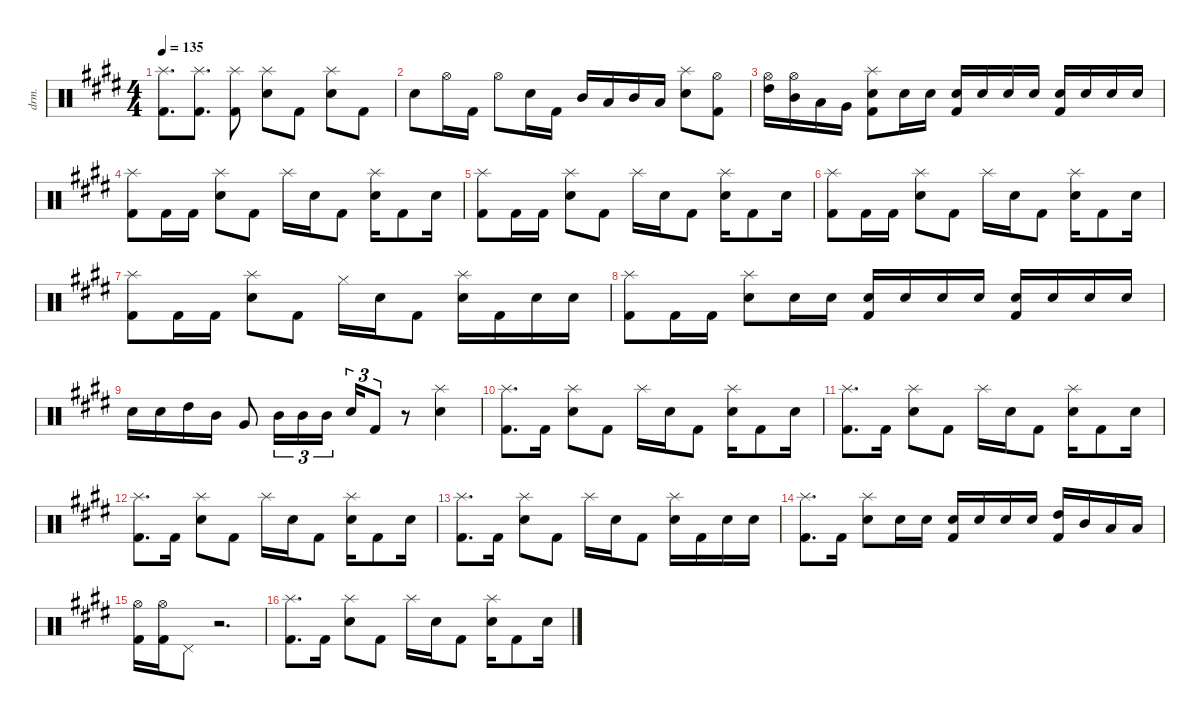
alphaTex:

\defaultSystemsLayout 4
\hideDynamics
\bracketExtendMode nobrackets
\track ("Drumkit" "drm.") {instrument percussion}
\staff {score}
\articulation defaults
\ts (4 4)
\tempo 135
\clef neutral
\ks e
("Splash (hit)"{acc forcenatural} "Kick (hit) 2"{acc forcenatural}).8{d dy mf} ("Kick (hit) 2"{acc forcenatural} "Splash (hit)"{acc forcenatural}).8{d} ("Splash (hit)"{acc forcenatural} "Kick (hit) 2"{acc forcenatural}).8 ("Snare (hit) 2"{acc forcenatural} "Splash (hit)"{acc forcenatural}).8 "Kick (hit) 2"{acc forcenatural}.8 ("Snare (hit) 2"{acc forcenatural} "Splash (hit)"{acc forcenatural}).8 "Kick (hit) 2"{acc forcenatural}.8 |
"Snare (hit) 2"{acc forcenatural}.8 "Hi-Hat (open)"{acc forcenatural}.16 "Kick (hit) 2"{acc forcenatural}.16 "Hi-Hat (open)"{acc forcenatural}.8 "Snare (hit) 2"{acc forcenatural}.16 "Kick (hit) 2"{acc forcenatural}.16 "Mid Tom (hit)"{acc forcenatural}.16 "Low Tom (hit)"{acc forcenatural}.16 "Mid Tom (hit)"{acc forcenatural}.16 "Low Tom (hit)"{acc forcenatural}.16 ("Snare (hit) 2"{acc forcenatural} "Splash (hit)"{acc forcenatural}).8 ("Hi-Hat (open)"{acc forcenatural} "Kick (hit) 2"{acc forcenatural}).8 |
("Hi-Hat (open)"{acc forcenatural} "High Tom (hit)"{acc forcenatural}).16 ("Hi-Hat (open)"{acc forcenatural} "Mid Tom (hit)"{acc forcenatural}).16 "Low Tom (hit)"{acc forcenatural}.16 "Very Low Tom (hit)"{acc forcenatural}.16 ("Kick (hit) 2"{acc forcenatural} "Splash (hit)"{acc forcenatural} "Snare (hit) 2"{acc forcenatural}).8 "Snare (hit) 2"{acc forcenatural}.16 "Snare (hit) 2"{acc forcenatural}.16 ("Snare (hit) 2"{acc forcenatural} "Kick (hit) 2"{acc forcenatural}).16 "Snare (hit) 2"{acc forcenatural}.16 "Snare (hit) 2"{acc forcenatural}.16 "Snare (hit) 2"{acc forcenatural}.16 ("Snare (hit) 2"{acc forcenatural} "Kick (hit) 2"{acc forcenatural}).16 "Snare (hit) 2"{acc forcenatural}.16 "Snare (hit) 2"{acc forcenatural}.16 "Snare (hit) 2"{acc forcenatural}.16 |
("Splash (hit)"{acc forcenatural} "Kick (hit) 2"{acc forcenatural}).8 "Kick (hit) 2"{acc forcenatural}.16 "Kick (hit) 2"{acc forcenatural}.16 ("Splash (hit)"{acc forcenatural} "Snare (hit) 2"{acc forcenatural}).8 "Kick (hit) 2"{acc forcenatural}.8 "Splash (hit)"{acc forcenatural}.16 "Snare (hit) 2"{acc forcenatural}.16 "Kick (hit) 2"{acc forcenatural}.8 ("Snare (hit) 2"{acc forcenatural} "Splash (hit)"{acc forcenatural}).16 "Kick (hit) 2"{acc forcenatural}.8 "Snare (hit) 2"{acc forcenatural}.16 |
("Splash (hit)"{acc forcenatural} "Kick (hit) 2"{acc forcenatural}).8 "Kick (hit) 2"{acc forcenatural}.16 "Kick (hit) 2"{acc forcenatural}.16 ("Splash (hit)"{acc forcenatural} "Snare (hit) 2"{acc forcenatural}).8 "Kick (hit) 2"{acc forcenatural}.8 "Splash (hit)"{acc forcenatural}.16 "Snare (hit) 2"{acc forcenatural}.16 "Kick (hit) 2"{acc forcenatural}.8 ("Snare (hit) 2"{acc forcenatural} "Splash (hit)"{acc forcenatural}).16 "Kick (hit) 2"{acc forcenatural}.8 "Snare (hit) 2"{acc forcenatural}.16 |
("Splash (hit)"{acc forcenatural} "Kick (hit) 2"{acc forcenatural}).8 "Kick (hit) 2"{acc forcenatural}.16 "Kick (hit) 2"{acc forcenatural}.16 ("Splash (hit)"{acc forcenatural} "Snare (hit) 2"{acc forcenatural}).8 "Kick (hit) 2"{acc forcenatural}.8 "Splash (hit)"{acc forcenatural}.16 "Snare (hit) 2"{acc forcenatural}.16 "Kick (hit) 2"{acc forcenatural}.8 ("Snare (hit) 2"{acc forcenatural} "Splash (hit)"{acc forcenatural}).16 "Kick (hit) 2"{acc forcenatural}.8 "Snare (hit) 2"{acc forcenatural}.16 |
("Kick (hit) 2"{acc forcenatural} "Splash (hit)"{acc forcenatural}).8 "Kick (hit) 2"{acc forcenatural}.16 "Kick (hit) 2"{acc forcenatural}.16 ("Splash (hit)"{acc forcenatural} "Snare (hit) 2"{acc forcenatural}).8 "Kick (hit) 2"{acc forcenatural}.8 "Hi-Hat (closed)"{acc forcenatural}.16 "Snare (hit) 2"{acc forcenatural}.16 "Kick (hit) 2"{acc forcenatural}.8 ("Splash (hit)"{acc forcenatural} "Snare (hit) 2"{acc forcenatural}).16 "Kick (hit) 2"{acc forcenatural}.16 "Snare (hit) 2"{acc forcenatural}.16 "Snare (hit) 2"{acc forcenatural}.16 |
("Kick (hit) 2"{acc forcenatural} "Splash (hit)"{acc forcenatural}).8 "Kick (hit) 2"{acc forcenatural}.16 "Kick (hit) 2"{acc forcenatural}.16 ("Splash (hit)"{acc forcenatural} "Snare (hit) 2"{acc forcenatural}).8 "Snare (hit) 2"{acc forcenatural}.16 "Snare (hit) 2"{acc forcenatural}.16 ("Snare (hit) 2"{acc forcenatural} "Kick (hit) 2"{acc forcenatural}).16 "Snare (hit) 2"{acc forcenatural}.16 "Snare (hit) 2"{acc forcenatural}.16 "Snare (hit) 2"{acc forcenatural}.16 ("Snare (hit) 2"{acc forcenatural} "Kick (hit) 2"{acc forcenatural}).16 "Snare (hit) 2"{acc forcenatural}.16 "Snare (hit) 2"{acc forcenatural}.16 "Snare (hit) 2"{acc forcenatural}.16 |
"Snare (hit) 2"{acc forcenatural}.16 "Snare (hit) 2"{acc forcenatural}.16 "High Tom (hit)"{acc forcenatural}.16 "Mid Tom (hit)"{acc forcenatural}.16 "Very Low Tom (hit)"{acc forcenatural}.8 "Mid Tom (hit)"{acc forcenatural}.16{tu (3 2)} "Mid Tom (hit)"{acc forcenatural}.16{tu (3 2)} "Mid Tom (hit)"{acc forcenatural}.16{tu (3 2)} "Snare (hit) 2"{acc forcenatural}.16{tu (3 2)} "Kick (hit) 2"{acc forcenatural}.8{tu (3 2)} r.8 ("Splash (hit)"{acc forcenatural} "Snare (hit) 2"{acc forcenatural}).4 |
("Splash (hit)"{acc forcenatural} "Kick (hit) 2"{acc forcenatural}).8{d} "Kick (hit) 2"{acc forcenatural}.16 ("Snare (hit) 2"{acc forcenatural} "Splash (hit)"{acc forcenatural}).8 "Kick (hit) 2"{acc forcenatural}.8 "Splash (hit)"{acc forcenatural}.16 "Snare (hit) 2"{acc forcenatural}.16 "Kick (hit) 2"{acc forcenatural}.8 ("Splash (hit)"{acc forcenatural} "Snare (hit) 2"{acc forcenatural}).16 "Kick (hit) 2"{acc forcenatural}.8 "Snare (hit) 2"{acc forcenatural}.16 |
("Splash (hit)"{acc forcenatural} "Kick (hit) 2"{acc forcenatural}).8{d} "Kick (hit) 2"{acc forcenatural}.16 ("Snare (hit) 2"{acc forcenatural} "Splash (hit)"{acc forcenatural}).8 "Kick (hit) 2"{acc forcenatural}.8 "Splash (hit)"{acc forcenatural}.16 "Snare (hit) 2"{acc forcenatural}.16 "Kick (hit) 2"{acc forcenatural}.8 ("Splash (hit)"{acc forcenatural} "Snare (hit) 2"{acc forcenatural}).16 "Kick (hit) 2"{acc forcenatural}.8 "Snare (hit) 2"{acc forcenatural}.16 |
("Splash (hit)"{acc forcenatural} "Kick (hit) 2"{acc forcenatural}).8{d} "Kick (hit) 2"{acc forcenatural}.16 ("Snare (hit) 2"{acc forcenatural} "Splash (hit)"{acc forcenatural}).8 "Kick (hit) 2"{acc forcenatural}.8 "Splash (hit)"{acc forcenatural}.16 "Snare (hit) 2"{acc forcenatural}.16 "Kick (hit) 2"{acc forcenatural}.8 ("Splash (hit)"{acc forcenatural} "Snare (hit) 2"{acc forcenatural}).16 "Kick (hit) 2"{acc forcenatural}.8 "Snare (hit) 2"{acc forcenatural}.16 |
("Splash (hit)"{acc forcenatural} "Kick (hit) 2"{acc forcenatural}).8{d} "Kick (hit) 2"{acc forcenatural}.16 ("Snare (hit) 2"{acc forcenatural} "Splash (hit)"{acc forcenatural}).8 "Kick (hit) 2"{acc forcenatural}.8 "Splash (hit)"{acc forcenatural}.16 "Snare (hit) 2"{acc forcenatural}.16 "Kick (hit) 2"{acc forcenatural}.8 ("Splash (hit)"{acc forcenatural} "Snare (hit) 2"{acc forcenatural}).16 "Kick (hit) 2"{acc forcenatural}.16 "Snare (hit) 2"{acc forcenatural}.16 "Snare (hit) 2"{acc forcenatural}.16 |
("Splash (hit)"{acc forcenatural} "Kick (hit) 2"{acc forcenatural}).8{d} "Kick (hit) 2"{acc forcenatural}.16 ("Splash (hit)"{acc forcenatural} "Snare (hit) 2"{acc forcenatural}).8 "Snare (hit) 2"{acc forcenatural}.16 "Snare (hit) 2"{acc forcenatural}.16 ("Snare (hit) 2"{acc forcenatural} "Kick (hit) 2"{acc forcenatural}).16 "Snare (hit) 2"{acc forcenatural}.16 "Snare (hit) 2"{acc forcenatural}.16 "Snare (hit) 2"{acc forcenatural}.16 ("Kick (hit) 2"{acc forcenatural} "High Tom (hit)"{acc forcenatural}).16 "Mid Tom (hit)"{acc forcenatural}.16 "Low Tom (hit)"{acc forcenatural}.16 "Low Tom (hit)"{acc forcenatural}.16 |
("Kick (hit) 2"{acc forcenatural} "Hi-Hat (open)"{acc forcenatural}).16 ("Kick (hit) 2"{acc forcenatural} "Hi-Hat (open)"{acc forcenatural}).16 "Pedal Hi-Hat (hit)"{acc forcenatural}.8 r.2{d} |
("Splash (hit)"{acc forcenatural} "Kick (hit) 2"{acc forcenatural}).8{d} "Kick (hit) 2"{acc forcenatural}.16 ("Snare (hit) 2"{acc forcenatural} "Splash (hit)"{acc forcenatural}).8 "Kick (hit) 2"{acc forcenatural}.8 "Splash (hit)"{acc forcenatural}.16 "Snare (hit) 2"{acc forcenatural}.16 "Kick (hit) 2"{acc forcenatural}.8 ("Splash (hit)"{acc forcenatural} "Snare (hit) 2"{acc forcenatural}).16 "Kick (hit) 2"{acc forcenatural}.8 "Snare (hit) 2"{acc forcenatural}.16
